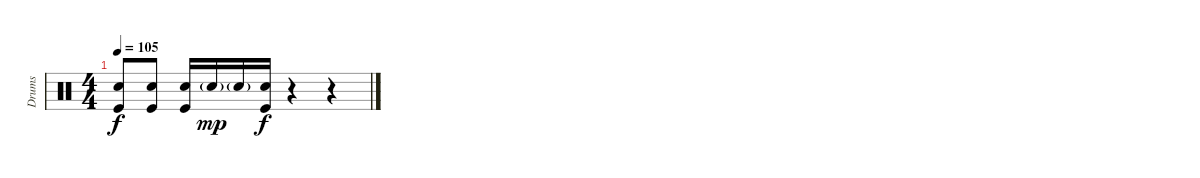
\track ("Drums" "Drums") {instrument percussion}
\staff {score}
\articulation defaults
\ts (4 4)
\tempo 105
\clef neutral
\ks c
("Electric Snare (hit)" "Kick (hit)").8{dy f} ("Electric Snare (hit)" "Kick (hit)").8 ("Electric Snare (hit)" "Kick (hit)").16 "Electric Snare (hit)"{g}.16{dy mp} "Electric Snare (hit)"{g}.16 ("Electric Snare (hit)" "Kick (hit)").16{dy f} r.4 r.4
